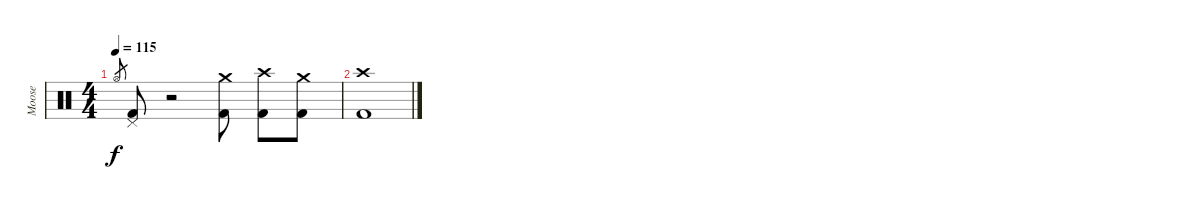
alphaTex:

\track ("Moose" "Moose") {instrument percussion}
\staff {score}
\articulation defaults
\ts (4 4)
\tempo 115
\clef neutral
\ks c "Hi-Hat (open)".8{gr dy f}
("Pedal Hi-Hat (hit)" "Kick (hit) 2").8 r.2 ("Crash medium (hit)" "Kick (hit) 2").8 ("Crash high (hit)" "Kick (hit) 2").8 ("Crash medium (hit)" "Kick (hit) 2").8 |
("Crash high (hit)" "Kick (hit) 2").1
